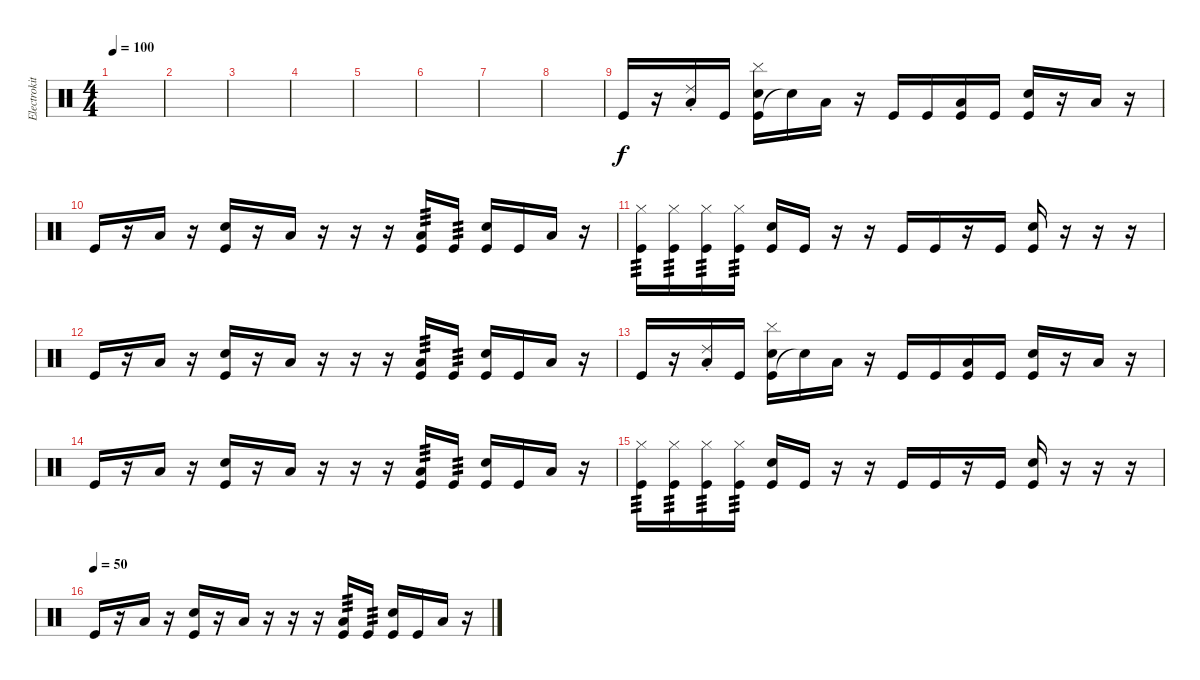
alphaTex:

\track ("Electrokit" "Electrokit") {instrument percussion}
\staff {score}
\articulation defaults
\ts (4 4)
\tempo 100
\clef neutral
\ks c
|
|
|
|
|
|
|
|
"Kick (hit)".16 r.16 ("Low Floor Tom (hit)" "Ride (choke) 2").16 "Kick (hit)".16 ("Kick (hit)" "Snare (hit) 2" "Cymbal (hit)").16 "Snare (hit)"{t}.16 "Low Floor Tom (hit)".16 r.16 "Kick (hit)".16 "Kick (hit)".16 ("Kick (hit)" "Low Floor Tom (hit)").16 "Kick (hit)".16 ("Kick (hit)" "Snare (hit) 2").16 r.16 "Low Floor Tom (hit)".16 r.16 |
"Kick (hit)".16 r.16 "Low Floor Tom (hit)".16 r.16 ("Kick (hit)" "Snare (hit) 2").16 r.16 "Low Floor Tom (hit)".16 r.16 r.16 r.16 ("Kick (hit)" "Low Floor Tom (hit)").16{tp 3} "Kick (hit)".16{tp 3} ("Kick (hit)" "Snare (hit) 2").16 "Kick (hit)".16 "Low Floor Tom (hit)".16 r.16 |
("Kick (hit)" "Hi-Hat (closed)").16{tp 3} ("Kick (hit)" "Hi-Hat (closed)").16{tp 3} ("Kick (hit)" "Hi-Hat (closed)").16{tp 3} ("Kick (hit)" "Hi-Hat (closed)").16{tp 3} ("Kick (hit)" "Snare (hit) 2").16 "Kick (hit)".16 r.16 r.16 "Kick (hit)".16 "Kick (hit)".16 r.16 "Kick (hit)".16 ("Kick (hit)" "Snare (hit) 2").16 r.16 r.16 r.16 |
"Kick (hit)".16 r.16 "Low Floor Tom (hit)".16 r.16 ("Kick (hit)" "Snare (hit) 2").16 r.16 "Low Floor Tom (hit)".16 r.16 r.16 r.16 ("Kick (hit)" "Low Floor Tom (hit)").16{tp 3} "Kick (hit)".16{tp 3} ("Kick (hit)" "Snare (hit) 2").16 "Kick (hit)".16 "Low Floor Tom (hit)".16 r.16 |
"Kick (hit)".16 r.16 ("Low Floor Tom (hit)" "Ride (choke) 2").16 "Kick (hit)".16 ("Kick (hit)" "Snare (hit) 2" "Cymbal (hit)").16 "Snare (hit)"{t}.16 "Low Floor Tom (hit)".16 r.16 "Kick (hit)".16 "Kick (hit)".16 ("Kick (hit)" "Low Floor Tom (hit)").16 "Kick (hit)".16 ("Kick (hit)" "Snare (hit) 2").16 r.16 "Low Floor Tom (hit)".16 r.16 |
"Kick (hit)".16 r.16 "Low Floor Tom (hit)".16 r.16 ("Kick (hit)" "Snare (hit) 2").16 r.16 "Low Floor Tom (hit)".16 r.16 r.16 r.16 ("Kick (hit)" "Low Floor Tom (hit)").16{tp 3} "Kick (hit)".16{tp 3} ("Kick (hit)" "Snare (hit) 2").16 "Kick (hit)".16 "Low Floor Tom (hit)".16 r.16 |
("Kick (hit)" "Hi-Hat (closed)").16{tp 3} ("Kick (hit)" "Hi-Hat (closed)").16{tp 3} ("Kick (hit)" "Hi-Hat (closed)").16{tp 3} ("Kick (hit)" "Hi-Hat (closed)").16{tp 3} ("Kick (hit)" "Snare (hit) 2").16 "Kick (hit)".16 r.16 r.16 "Kick (hit)".16 "Kick (hit)".16 r.16 "Kick (hit)".16 ("Kick (hit)" "Snare (hit) 2").16 r.16 r.16 r.16 |
\tempo (50)
"Kick (hit)".16 r.16 "Low Floor Tom (hit)".16 r.16 ("Kick (hit)" "Snare (hit) 2").16 r.16 "Low Floor Tom (hit)".16 r.16 r.16 r.16 ("Kick (hit)" "Low Floor Tom (hit)").16{tp 3} "Kick (hit)".16{tp 3} ("Kick (hit)" "Snare (hit) 2").16 "Kick (hit)".16 "Low Floor Tom (hit)".16 r.16
